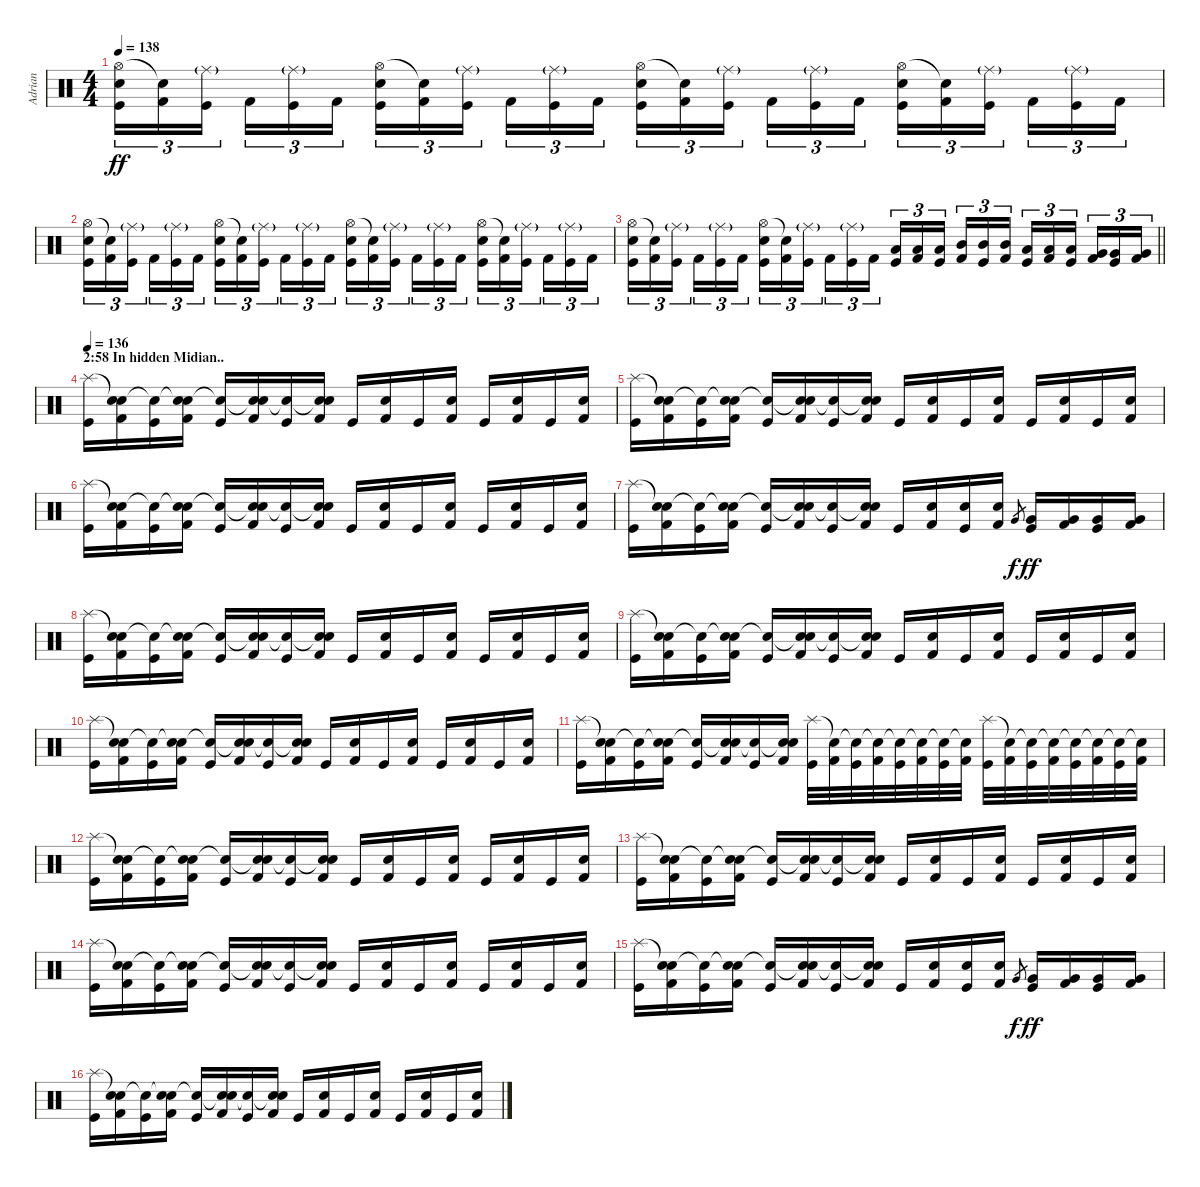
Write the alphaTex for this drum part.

\track ("Adrian" "Adrian") {instrument percussion}
\staff {score}
\articulation defaults
\ts (4 4)
\tempo 138
\clef neutral
\ks c
("Hi-Hat (open)" "Electric Snare (hit)" "Kick (hit)").16{tu (3 2) dy ff} ("Snare (hit)"{t} "Kick (hit) 2").16{tu (3 2)} ("Ride (middle)"{g} "Kick (hit)").16{tu (3 2) beam splitsecondary} "Kick (hit) 2".16{tu (3 2)} ("Ride (middle)"{g} "Kick (hit)").16{tu (3 2)} "Kick (hit) 2".16{tu (3 2)} ("Hi-Hat (open)" "Electric Snare (hit)" "Kick (hit)").16{tu (3 2)} ("Snare (hit)"{t} "Kick (hit) 2").16{tu (3 2)} ("Ride (middle)"{g} "Kick (hit)").16{tu (3 2) beam splitsecondary} "Kick (hit) 2".16{tu (3 2)} ("Ride (middle)"{g} "Kick (hit)").16{tu (3 2)} "Kick (hit) 2".16{tu (3 2)} ("Hi-Hat (open)" "Electric Snare (hit)" "Kick (hit)").16{tu (3 2)} ("Snare (hit)"{t} "Kick (hit) 2").16{tu (3 2)} ("Ride (middle)"{g} "Kick (hit)").16{tu (3 2) beam splitsecondary} "Kick (hit) 2".16{tu (3 2)} ("Ride (middle)"{g} "Kick (hit)").16{tu (3 2)} "Kick (hit) 2".16{tu (3 2)} ("Hi-Hat (open)" "Electric Snare (hit)" "Kick (hit)").16{tu (3 2)} ("Snare (hit)"{t} "Kick (hit) 2").16{tu (3 2)} ("Ride (middle)"{g} "Kick (hit)").16{tu (3 2) beam splitsecondary} "Kick (hit) 2".16{tu (3 2)} ("Ride (middle)"{g} "Kick (hit)").16{tu (3 2)} "Kick (hit) 2".16{tu (3 2)} |
("Hi-Hat (open)" "Electric Snare (hit)" "Kick (hit)").16{tu (3 2)} ("Snare (hit)"{t} "Kick (hit) 2").16{tu (3 2)} ("Ride (middle)"{g} "Kick (hit)").16{tu (3 2) beam splitsecondary} "Kick (hit) 2".16{tu (3 2)} ("Ride (middle)"{g} "Kick (hit)").16{tu (3 2)} "Kick (hit) 2".16{tu (3 2)} ("Hi-Hat (open)" "Electric Snare (hit)" "Kick (hit)").16{tu (3 2)} ("Snare (hit)"{t} "Kick (hit) 2").16{tu (3 2)} ("Ride (middle)"{g} "Kick (hit)").16{tu (3 2) beam splitsecondary} "Kick (hit) 2".16{tu (3 2)} ("Ride (middle)"{g} "Kick (hit)").16{tu (3 2)} "Kick (hit) 2".16{tu (3 2)} ("Hi-Hat (open)" "Electric Snare (hit)" "Kick (hit)").16{tu (3 2)} ("Snare (hit)"{t} "Kick (hit) 2").16{tu (3 2)} ("Ride (middle)"{g} "Kick (hit)").16{tu (3 2) beam splitsecondary} "Kick (hit) 2".16{tu (3 2)} ("Ride (middle)"{g} "Kick (hit)").16{tu (3 2)} "Kick (hit) 2".16{tu (3 2)} ("Hi-Hat (open)" "Electric Snare (hit)" "Kick (hit)").16{tu (3 2)} ("Snare (hit)"{t} "Kick (hit) 2").16{tu (3 2)} ("Ride (middle)"{g} "Kick (hit)").16{tu (3 2) beam splitsecondary} "Kick (hit) 2".16{tu (3 2)} ("Ride (middle)"{g} "Kick (hit)").16{tu (3 2)} "Kick (hit) 2".16{tu (3 2)} |
\barLineRight lightlight
("Hi-Hat (open)" "Electric Snare (hit)" "Kick (hit)").16{tu (3 2)} ("Snare (hit)"{t} "Kick (hit) 2").16{tu (3 2)} ("Ride (middle)"{g} "Kick (hit)").16{tu (3 2) beam splitsecondary} "Kick (hit) 2".16{tu (3 2)} ("Ride (middle)"{g} "Kick (hit)").16{tu (3 2)} "Kick (hit) 2".16{tu (3 2)} ("Hi-Hat (open)" "Electric Snare (hit)" "Kick (hit)").16{tu (3 2)} ("Snare (hit)"{t} "Kick (hit) 2").16{tu (3 2)} ("Ride (middle)"{g} "Kick (hit)").16{tu (3 2) beam splitsecondary} "Kick (hit) 2".16{tu (3 2)} ("Ride (middle)"{g} "Kick (hit)").16{tu (3 2)} "Kick (hit) 2".16{tu (3 2)} ("Low Floor Tom (hit)" "Kick (hit)").16{tu (3 2)} ("Low Floor Tom (hit)" "Kick (hit) 2").16{tu (3 2)} ("Low Floor Tom (hit)" "Kick (hit)").16{tu (3 2) beam splitsecondary} ("Mid Tom (hit)" "Kick (hit) 2").16{tu (3 2)} ("Mid Tom (hit)" "Kick (hit)").16{tu (3 2)} ("Mid Tom (hit)" "Kick (hit) 2").16{tu (3 2)} ("Low Tom (hit)" "Kick (hit)").16{tu (3 2)} ("Low Tom (hit)" "Kick (hit) 2").16{tu (3 2)} ("Low Tom (hit)" "Kick (hit)").16{tu (3 2) beam splitsecondary} ("Very Low Tom (hit)" "Kick (hit) 2").16{tu (3 2)} ("Very Low Tom (hit)" "Kick (hit)").16{tu (3 2)} ("Very Low Tom (hit)" "Kick (hit) 2").16{tu (3 2)} |
\section ("" "2:58 In hidden Midian..")
\tempo 136
("Splash (hit)" "Kick (hit)").16 ("Snare (hit)"{t} "Electric Snare (hit)" "Kick (hit) 2").16 ("Snare (hit)"{t} "Kick (hit)").16 ("Snare (hit)"{t} "Electric Snare (hit)" "Kick (hit) 2").16 ("Snare (hit)"{t} "Kick (hit)").16 ("Snare (hit)"{t} "Electric Snare (hit)" "Kick (hit) 2").16 ("Snare (hit)"{t} "Kick (hit)").16 ("Snare (hit)"{t} "Electric Snare (hit)" "Kick (hit) 2").16 "Kick (hit)".16 ("Electric Snare (hit)" "Kick (hit) 2").16 "Kick (hit)".16 ("Electric Snare (hit)" "Kick (hit) 2").16 "Kick (hit)".16 ("Electric Snare (hit)" "Kick (hit) 2").16 "Kick (hit)".16 ("Electric Snare (hit)" "Kick (hit) 2").16 |
("Splash (hit)" "Kick (hit)").16 ("Snare (hit)"{t} "Electric Snare (hit)" "Kick (hit) 2").16 ("Snare (hit)"{t} "Kick (hit)").16 ("Snare (hit)"{t} "Electric Snare (hit)" "Kick (hit) 2").16 ("Snare (hit)"{t} "Kick (hit)").16 ("Snare (hit)"{t} "Electric Snare (hit)" "Kick (hit) 2").16 ("Snare (hit)"{t} "Kick (hit)").16 ("Snare (hit)"{t} "Electric Snare (hit)" "Kick (hit) 2").16 "Kick (hit)".16 ("Electric Snare (hit)" "Kick (hit) 2").16 "Kick (hit)".16 ("Electric Snare (hit)" "Kick (hit) 2").16 "Kick (hit)".16 ("Electric Snare (hit)" "Kick (hit) 2").16 "Kick (hit)".16 ("Electric Snare (hit)" "Kick (hit) 2").16 |
("Splash (hit)" "Kick (hit)").16 ("Snare (hit)"{t} "Electric Snare (hit)" "Kick (hit) 2").16 ("Snare (hit)"{t} "Kick (hit)").16 ("Snare (hit)"{t} "Electric Snare (hit)" "Kick (hit) 2").16 ("Snare (hit)"{t} "Kick (hit)").16 ("Snare (hit)"{t} "Electric Snare (hit)" "Kick (hit) 2").16 ("Snare (hit)"{t} "Kick (hit)").16 ("Snare (hit)"{t} "Electric Snare (hit)" "Kick (hit) 2").16 "Kick (hit)".16 ("Electric Snare (hit)" "Kick (hit) 2").16 "Kick (hit)".16 ("Electric Snare (hit)" "Kick (hit) 2").16 "Kick (hit)".16 ("Electric Snare (hit)" "Kick (hit) 2").16 "Kick (hit)".16 ("Electric Snare (hit)" "Kick (hit) 2").16 |
("Splash (hit)" "Kick (hit)").16 ("Snare (hit)"{t} "Electric Snare (hit)" "Kick (hit) 2").16 ("Snare (hit)"{t} "Kick (hit)").16 ("Snare (hit)"{t} "Electric Snare (hit)" "Kick (hit) 2").16 ("Snare (hit)"{t} "Kick (hit)").16 ("Snare (hit)"{t} "Electric Snare (hit)" "Kick (hit) 2").16 ("Snare (hit)"{t} "Kick (hit)").16 ("Snare (hit)"{t} "Electric Snare (hit)" "Kick (hit) 2").16 "Kick (hit)".16 ("Electric Snare (hit)" "Kick (hit) 2").16 ("Electric Snare (hit)" "Kick (hit)").16 ("Electric Snare (hit)" "Kick (hit) 2").16 "Very Low Tom (hit)".8{gr dy f} ("Very Low Tom (hit)" "Kick (hit)").16{dy ff} ("Very Low Tom (hit)" "Kick (hit) 2").16 ("Very Low Tom (hit)" "Kick (hit)").16 ("Very Low Tom (hit)" "Kick (hit) 2").16 |
("Splash (hit)" "Kick (hit)").16 ("Snare (hit)"{t} "Electric Snare (hit)" "Kick (hit) 2").16 ("Snare (hit)"{t} "Kick (hit)").16 ("Snare (hit)"{t} "Electric Snare (hit)" "Kick (hit) 2").16 ("Snare (hit)"{t} "Kick (hit)").16 ("Snare (hit)"{t} "Electric Snare (hit)" "Kick (hit) 2").16 ("Snare (hit)"{t} "Kick (hit)").16 ("Snare (hit)"{t} "Electric Snare (hit)" "Kick (hit) 2").16 "Kick (hit)".16 ("Electric Snare (hit)" "Kick (hit) 2").16 "Kick (hit)".16 ("Electric Snare (hit)" "Kick (hit) 2").16 "Kick (hit)".16 ("Electric Snare (hit)" "Kick (hit) 2").16 "Kick (hit)".16 ("Electric Snare (hit)" "Kick (hit) 2").16 |
("Splash (hit)" "Kick (hit)").16 ("Snare (hit)"{t} "Electric Snare (hit)" "Kick (hit) 2").16 ("Snare (hit)"{t} "Kick (hit)").16 ("Snare (hit)"{t} "Electric Snare (hit)" "Kick (hit) 2").16 ("Snare (hit)"{t} "Kick (hit)").16 ("Snare (hit)"{t} "Electric Snare (hit)" "Kick (hit) 2").16 ("Snare (hit)"{t} "Kick (hit)").16 ("Snare (hit)"{t} "Electric Snare (hit)" "Kick (hit) 2").16 "Kick (hit)".16 ("Electric Snare (hit)" "Kick (hit) 2").16 "Kick (hit)".16 ("Electric Snare (hit)" "Kick (hit) 2").16 "Kick (hit)".16 ("Electric Snare (hit)" "Kick (hit) 2").16 "Kick (hit)".16 ("Electric Snare (hit)" "Kick (hit) 2").16 |
("Splash (hit)" "Kick (hit)").16 ("Snare (hit)"{t} "Electric Snare (hit)" "Kick (hit) 2").16 ("Snare (hit)"{t} "Kick (hit)").16 ("Snare (hit)"{t} "Electric Snare (hit)" "Kick (hit) 2").16 ("Snare (hit)"{t} "Kick (hit)").16 ("Snare (hit)"{t} "Electric Snare (hit)" "Kick (hit) 2").16 ("Snare (hit)"{t} "Kick (hit)").16 ("Snare (hit)"{t} "Electric Snare (hit)" "Kick (hit) 2").16 "Kick (hit)".16 ("Electric Snare (hit)" "Kick (hit) 2").16 "Kick (hit)".16 ("Electric Snare (hit)" "Kick (hit) 2").16 "Kick (hit)".16 ("Electric Snare (hit)" "Kick (hit) 2").16 "Kick (hit)".16 ("Electric Snare (hit)" "Kick (hit) 2").16 |
("Splash (hit)" "Kick (hit)").16 ("Snare (hit)"{t} "Electric Snare (hit)" "Kick (hit) 2").16 ("Snare (hit)"{t} "Kick (hit)").16 ("Snare (hit)"{t} "Electric Snare (hit)" "Kick (hit) 2").16 ("Snare (hit)"{t} "Kick (hit)").16 ("Snare (hit)"{t} "Electric Snare (hit)" "Kick (hit) 2").16 ("Snare (hit)"{t} "Kick (hit)").16 ("Snare (hit)"{t} "Electric Snare (hit)" "Kick (hit) 2").16 ("Splash (hit)" "Kick (hit)").32 ("Snare (hit)"{t} "Kick (hit) 2").32 ("Snare (hit)"{t} "Kick (hit)").32 ("Snare (hit)"{t} "Kick (hit) 2").32 ("Snare (hit)"{t} "Kick (hit)").32 ("Snare (hit)"{t} "Kick (hit) 2").32 ("Snare (hit)"{t} "Kick (hit)").32 ("Snare (hit)"{t} "Kick (hit) 2").32 ("Splash (hit)" "Kick (hit)").32 ("Snare (hit)"{t} "Kick (hit) 2").32 ("Snare (hit)"{t} "Kick (hit)").32 ("Snare (hit)"{t} "Kick (hit) 2").32 ("Snare (hit)"{t} "Kick (hit)").32 ("Snare (hit)"{t} "Kick (hit) 2").32 ("Snare (hit)"{t} "Kick (hit)").32 ("Snare (hit)"{t} "Kick (hit) 2").32 |
("Splash (hit)" "Kick (hit)").16 ("Snare (hit)"{t} "Electric Snare (hit)" "Kick (hit) 2").16 ("Snare (hit)"{t} "Kick (hit)").16 ("Snare (hit)"{t} "Electric Snare (hit)" "Kick (hit) 2").16 ("Snare (hit)"{t} "Kick (hit)").16 ("Snare (hit)"{t} "Electric Snare (hit)" "Kick (hit) 2").16 ("Snare (hit)"{t} "Kick (hit)").16 ("Snare (hit)"{t} "Electric Snare (hit)" "Kick (hit) 2").16 "Kick (hit)".16 ("Electric Snare (hit)" "Kick (hit) 2").16 "Kick (hit)".16 ("Electric Snare (hit)" "Kick (hit) 2").16 "Kick (hit)".16 ("Electric Snare (hit)" "Kick (hit) 2").16 "Kick (hit)".16 ("Electric Snare (hit)" "Kick (hit) 2").16 |
("Splash (hit)" "Kick (hit)").16 ("Snare (hit)"{t} "Electric Snare (hit)" "Kick (hit) 2").16 ("Snare (hit)"{t} "Kick (hit)").16 ("Snare (hit)"{t} "Electric Snare (hit)" "Kick (hit) 2").16 ("Snare (hit)"{t} "Kick (hit)").16 ("Snare (hit)"{t} "Electric Snare (hit)" "Kick (hit) 2").16 ("Snare (hit)"{t} "Kick (hit)").16 ("Snare (hit)"{t} "Electric Snare (hit)" "Kick (hit) 2").16 "Kick (hit)".16 ("Electric Snare (hit)" "Kick (hit) 2").16 "Kick (hit)".16 ("Electric Snare (hit)" "Kick (hit) 2").16 "Kick (hit)".16 ("Electric Snare (hit)" "Kick (hit) 2").16 "Kick (hit)".16 ("Electric Snare (hit)" "Kick (hit) 2").16 |
("Splash (hit)" "Kick (hit)").16 ("Snare (hit)"{t} "Electric Snare (hit)" "Kick (hit) 2").16 ("Snare (hit)"{t} "Kick (hit)").16 ("Snare (hit)"{t} "Electric Snare (hit)" "Kick (hit) 2").16 ("Snare (hit)"{t} "Kick (hit)").16 ("Snare (hit)"{t} "Electric Snare (hit)" "Kick (hit) 2").16 ("Snare (hit)"{t} "Kick (hit)").16 ("Snare (hit)"{t} "Electric Snare (hit)" "Kick (hit) 2").16 "Kick (hit)".16 ("Electric Snare (hit)" "Kick (hit) 2").16 "Kick (hit)".16 ("Electric Snare (hit)" "Kick (hit) 2").16 "Kick (hit)".16 ("Electric Snare (hit)" "Kick (hit) 2").16 "Kick (hit)".16 ("Electric Snare (hit)" "Kick (hit) 2").16 |
("Splash (hit)" "Kick (hit)").16 ("Snare (hit)"{t} "Electric Snare (hit)" "Kick (hit) 2").16 ("Snare (hit)"{t} "Kick (hit)").16 ("Snare (hit)"{t} "Electric Snare (hit)" "Kick (hit) 2").16 ("Snare (hit)"{t} "Kick (hit)").16 ("Snare (hit)"{t} "Electric Snare (hit)" "Kick (hit) 2").16 ("Snare (hit)"{t} "Kick (hit)").16 ("Snare (hit)"{t} "Electric Snare (hit)" "Kick (hit) 2").16 "Kick (hit)".16 ("Electric Snare (hit)" "Kick (hit) 2").16 ("Electric Snare (hit)" "Kick (hit)").16 ("Electric Snare (hit)" "Kick (hit) 2").16 "Very Low Tom (hit)".8{gr dy f} ("Very Low Tom (hit)" "Kick (hit)").16{dy ff} ("Very Low Tom (hit)" "Kick (hit) 2").16 ("Very Low Tom (hit)" "Kick (hit)").16 ("Very Low Tom (hit)" "Kick (hit) 2").16 |
("Splash (hit)" "Kick (hit)").16 ("Snare (hit)"{t} "Electric Snare (hit)" "Kick (hit) 2").16 ("Snare (hit)"{t} "Kick (hit)").16 ("Snare (hit)"{t} "Electric Snare (hit)" "Kick (hit) 2").16 ("Snare (hit)"{t} "Kick (hit)").16 ("Snare (hit)"{t} "Electric Snare (hit)" "Kick (hit) 2").16 ("Snare (hit)"{t} "Kick (hit)").16 ("Snare (hit)"{t} "Electric Snare (hit)" "Kick (hit) 2").16 "Kick (hit)".16 ("Electric Snare (hit)" "Kick (hit) 2").16 "Kick (hit)".16 ("Electric Snare (hit)" "Kick (hit) 2").16 "Kick (hit)".16 ("Electric Snare (hit)" "Kick (hit) 2").16 "Kick (hit)".16 ("Electric Snare (hit)" "Kick (hit) 2").16
